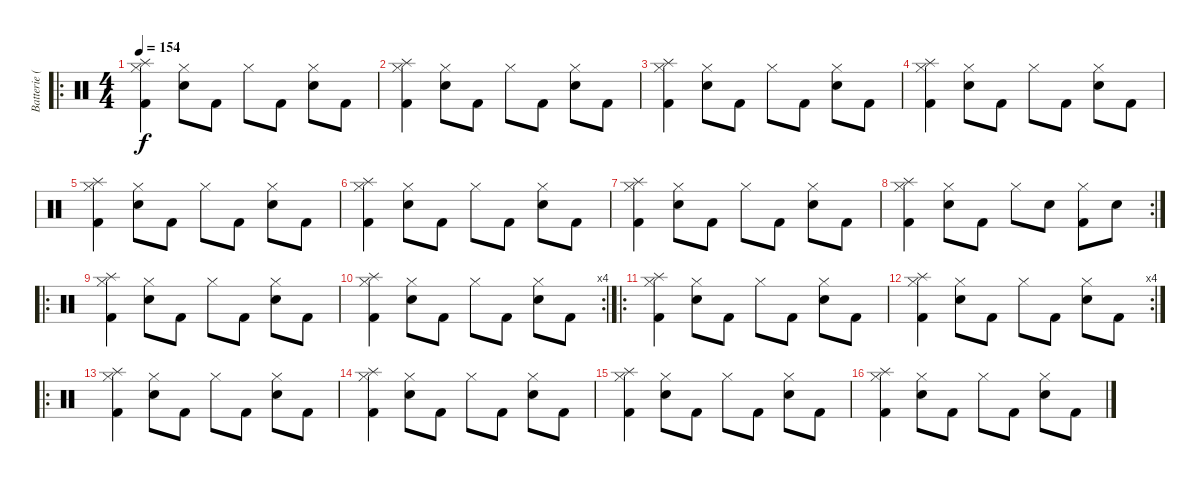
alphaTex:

\track ("Batterie (Patty)" "Batterie (") {instrument percussion}
\staff {score}
\articulation defaults
\ro
\ts (4 4)
\tempo 154
\clef neutral
\ks c
("Splash (hit)" "Hi-Hat (closed)" "Kick (hit) 2").4{dy f} ("Hi-Hat (closed)" "Snare (hit) 2").8 "Kick (hit) 2".8 "Hi-Hat (closed)".8 "Kick (hit) 2".8 ("Hi-Hat (closed)" "Snare (hit) 2").8 "Kick (hit) 2".8 |
("Splash (hit)" "Hi-Hat (closed)" "Kick (hit) 2").4 ("Hi-Hat (closed)" "Snare (hit) 2").8 "Kick (hit) 2".8 "Hi-Hat (closed)".8 "Kick (hit) 2".8 ("Hi-Hat (closed)" "Snare (hit) 2").8 "Kick (hit) 2".8 |
("Splash (hit)" "Hi-Hat (closed)" "Kick (hit) 2").4 ("Hi-Hat (closed)" "Snare (hit) 2").8 "Kick (hit) 2".8 "Hi-Hat (closed)".8 "Kick (hit) 2".8 ("Hi-Hat (closed)" "Snare (hit) 2").8 "Kick (hit) 2".8 |
("Splash (hit)" "Hi-Hat (closed)" "Kick (hit) 2").4 ("Hi-Hat (closed)" "Snare (hit) 2").8 "Kick (hit) 2".8 "Hi-Hat (closed)".8 "Kick (hit) 2".8 ("Hi-Hat (closed)" "Snare (hit) 2").8 "Kick (hit) 2".8 |
("Splash (hit)" "Hi-Hat (closed)" "Kick (hit) 2").4 ("Hi-Hat (closed)" "Snare (hit) 2").8 "Kick (hit) 2".8 "Hi-Hat (closed)".8 "Kick (hit) 2".8 ("Hi-Hat (closed)" "Snare (hit) 2").8 "Kick (hit) 2".8 |
("Splash (hit)" "Hi-Hat (closed)" "Kick (hit) 2").4 ("Hi-Hat (closed)" "Snare (hit) 2").8 "Kick (hit) 2".8 "Hi-Hat (closed)".8 "Kick (hit) 2".8 ("Hi-Hat (closed)" "Snare (hit) 2").8 "Kick (hit) 2".8 |
("Splash (hit)" "Hi-Hat (closed)" "Kick (hit) 2").4 ("Hi-Hat (closed)" "Snare (hit) 2").8 "Kick (hit) 2".8 "Hi-Hat (closed)".8 "Kick (hit) 2".8 ("Hi-Hat (closed)" "Snare (hit) 2").8 "Kick (hit) 2".8 |
\rc 2
("Splash (hit)" "Hi-Hat (closed)" "Kick (hit) 2").4 ("Hi-Hat (closed)" "Snare (hit) 2").8 "Kick (hit) 2".8 "Hi-Hat (closed)".8 "Snare (hit) 2".8 ("Hi-Hat (closed)" "Kick (hit) 2").8 "Snare (hit) 2".8 |
\ro
("Splash (hit)" "Hi-Hat (closed)" "Kick (hit) 2").4 ("Hi-Hat (closed)" "Snare (hit) 2").8 "Kick (hit) 2".8 "Hi-Hat (closed)".8 "Kick (hit) 2".8 ("Hi-Hat (closed)" "Snare (hit) 2").8 "Kick (hit) 2".8 |
\rc 4
("Splash (hit)" "Hi-Hat (closed)" "Kick (hit) 2").4 ("Hi-Hat (closed)" "Snare (hit) 2").8 "Kick (hit) 2".8 "Hi-Hat (closed)".8 "Kick (hit) 2".8 ("Hi-Hat (closed)" "Snare (hit) 2").8 "Kick (hit) 2".8 |
\ro
("Splash (hit)" "Hi-Hat (closed)" "Kick (hit) 2").4 ("Hi-Hat (closed)" "Snare (hit) 2").8 "Kick (hit) 2".8 "Hi-Hat (closed)".8 "Kick (hit) 2".8 ("Hi-Hat (closed)" "Snare (hit) 2").8 "Kick (hit) 2".8 |
\rc 4
("Splash (hit)" "Hi-Hat (closed)" "Kick (hit) 2").4 ("Hi-Hat (closed)" "Snare (hit) 2").8 "Kick (hit) 2".8 "Hi-Hat (closed)".8 "Kick (hit) 2".8 ("Hi-Hat (closed)" "Snare (hit) 2").8 "Kick (hit) 2".8 |
\ro
("Splash (hit)" "Hi-Hat (closed)" "Kick (hit) 2").4 ("Hi-Hat (closed)" "Snare (hit) 2").8 "Kick (hit) 2".8 "Hi-Hat (closed)".8 "Kick (hit) 2".8 ("Hi-Hat (closed)" "Snare (hit) 2").8 "Kick (hit) 2".8 |
("Splash (hit)" "Hi-Hat (closed)" "Kick (hit) 2").4 ("Hi-Hat (closed)" "Snare (hit) 2").8 "Kick (hit) 2".8 "Hi-Hat (closed)".8 "Kick (hit) 2".8 ("Hi-Hat (closed)" "Snare (hit) 2").8 "Kick (hit) 2".8 |
("Splash (hit)" "Hi-Hat (closed)" "Kick (hit) 2").4 ("Hi-Hat (closed)" "Snare (hit) 2").8 "Kick (hit) 2".8 "Hi-Hat (closed)".8 "Kick (hit) 2".8 ("Hi-Hat (closed)" "Snare (hit) 2").8 "Kick (hit) 2".8 |
("Splash (hit)" "Hi-Hat (closed)" "Kick (hit) 2").4 ("Hi-Hat (closed)" "Snare (hit) 2").8 "Kick (hit) 2".8 "Hi-Hat (closed)".8 "Kick (hit) 2".8 ("Hi-Hat (closed)" "Snare (hit) 2").8 "Kick (hit) 2".8
